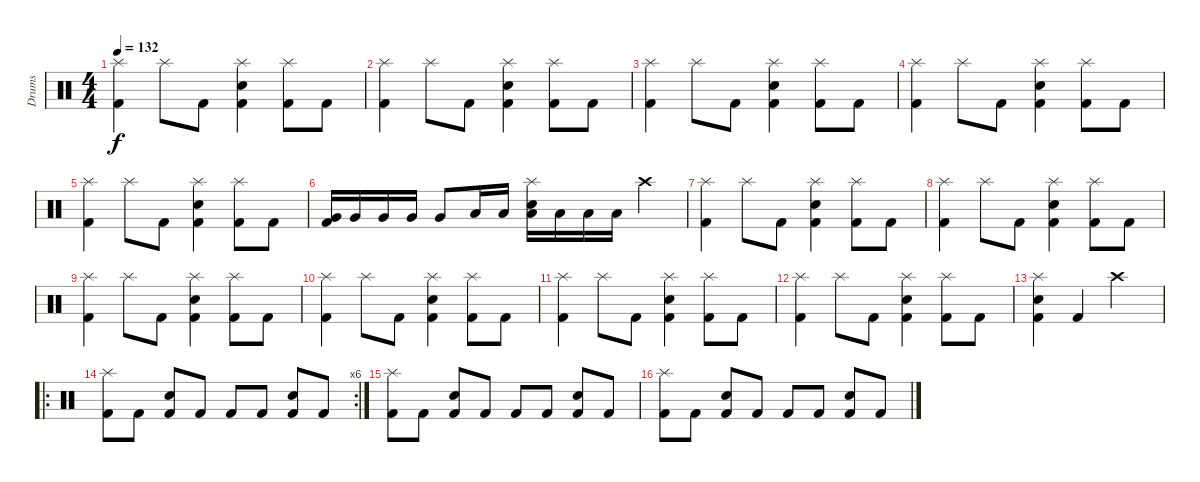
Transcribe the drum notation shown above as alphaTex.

\track ("Drums" "Drums") {instrument percussion}
\staff {score}
\articulation defaults
\ts (4 4)
\tempo 132
\clef neutral
\ks c
("Splash (hit)" "Kick (hit) 2").4{dy f} "Splash (hit)".8 "Kick (hit) 2".8 ("Electric Snare (hit)" "Splash (hit)" "Kick (hit) 2").4 ("Splash (hit)" "Kick (hit) 2").8 "Kick (hit) 2".8 |
("Splash (hit)" "Kick (hit) 2").4 "Splash (hit)".8 "Kick (hit) 2".8 ("Electric Snare (hit)" "Splash (hit)" "Kick (hit) 2").4 ("Splash (hit)" "Kick (hit) 2").8 "Kick (hit) 2".8 |
("Splash (hit)" "Kick (hit) 2").4 "Splash (hit)".8 "Kick (hit) 2".8 ("Electric Snare (hit)" "Splash (hit)" "Kick (hit) 2").4 ("Splash (hit)" "Kick (hit) 2").8 "Kick (hit) 2".8 |
("Splash (hit)" "Kick (hit) 2").4 "Splash (hit)".8 "Kick (hit) 2".8 ("Electric Snare (hit)" "Splash (hit)" "Kick (hit) 2").4 ("Splash (hit)" "Kick (hit) 2").8 "Kick (hit) 2".8 |
("Splash (hit)" "Kick (hit) 2").4 "Splash (hit)".8 "Kick (hit) 2".8 ("Electric Snare (hit)" "Splash (hit)" "Kick (hit) 2").4 ("Splash (hit)" "Kick (hit) 2").8 "Kick (hit) 2".8 |
("Very Low Tom (hit)" "Kick (hit) 2").16 "Very Low Tom (hit)".16 "Very Low Tom (hit)".16 "Very Low Tom (hit)".16 "Very Low Tom (hit)".8 "Low Tom (hit)".16 "Low Tom (hit)".16 ("Low Tom (hit)" "Splash (hit)" "Electric Snare (hit)").16 "Low Tom (hit)".16 "Low Tom (hit)".16 "Low Tom (hit)".16 "Crash high (hit)".4 |
("Splash (hit)" "Kick (hit) 2").4 "Splash (hit)".8 "Kick (hit) 2".8 ("Electric Snare (hit)" "Splash (hit)" "Kick (hit) 2").4 ("Splash (hit)" "Kick (hit) 2").8 "Kick (hit) 2".8 |
("Splash (hit)" "Kick (hit) 2").4 "Splash (hit)".8 "Kick (hit) 2".8 ("Electric Snare (hit)" "Splash (hit)" "Kick (hit) 2").4 ("Splash (hit)" "Kick (hit) 2").8 "Kick (hit) 2".8 |
("Splash (hit)" "Kick (hit) 2").4 "Splash (hit)".8 "Kick (hit) 2".8 ("Electric Snare (hit)" "Splash (hit)" "Kick (hit) 2").4 ("Splash (hit)" "Kick (hit) 2").8 "Kick (hit) 2".8 |
("Splash (hit)" "Kick (hit) 2").4 "Splash (hit)".8 "Kick (hit) 2".8 ("Electric Snare (hit)" "Splash (hit)" "Kick (hit) 2").4 ("Splash (hit)" "Kick (hit) 2").8 "Kick (hit) 2".8 |
("Splash (hit)" "Kick (hit) 2").4 "Splash (hit)".8 "Kick (hit) 2".8 ("Electric Snare (hit)" "Splash (hit)" "Kick (hit) 2").4 ("Splash (hit)" "Kick (hit) 2").8 "Kick (hit) 2".8 |
("Splash (hit)" "Kick (hit) 2").4 "Splash (hit)".8 "Kick (hit) 2".8 ("Electric Snare (hit)" "Splash (hit)" "Kick (hit) 2").4 ("Splash (hit)" "Kick (hit) 2").8 "Kick (hit) 2".8 |
("Kick (hit) 2" "Splash (hit)" "Electric Snare (hit)").4 "Kick (hit) 2".4 "Crash high (hit)".2 |
\ro
\rc 6
("Kick (hit) 2" "Splash (hit)").8 "Kick (hit) 2".8 ("Kick (hit) 2" "Electric Snare (hit)").8 "Kick (hit) 2".8 "Kick (hit) 2".8 "Kick (hit) 2".8 ("Kick (hit) 2" "Electric Snare (hit)").8 "Kick (hit) 2".8 |
("Kick (hit) 2" "Splash (hit)").8 "Kick (hit) 2".8 ("Kick (hit) 2" "Electric Snare (hit)").8 "Kick (hit) 2".8 "Kick (hit) 2".8 "Kick (hit) 2".8 ("Kick (hit) 2" "Electric Snare (hit)").8 "Kick (hit) 2".8 |
("Kick (hit) 2" "Splash (hit)").8 "Kick (hit) 2".8 ("Kick (hit) 2" "Electric Snare (hit)").8 "Kick (hit) 2".8 "Kick (hit) 2".8 "Kick (hit) 2".8 ("Kick (hit) 2" "Electric Snare (hit)").8 "Kick (hit) 2".8
